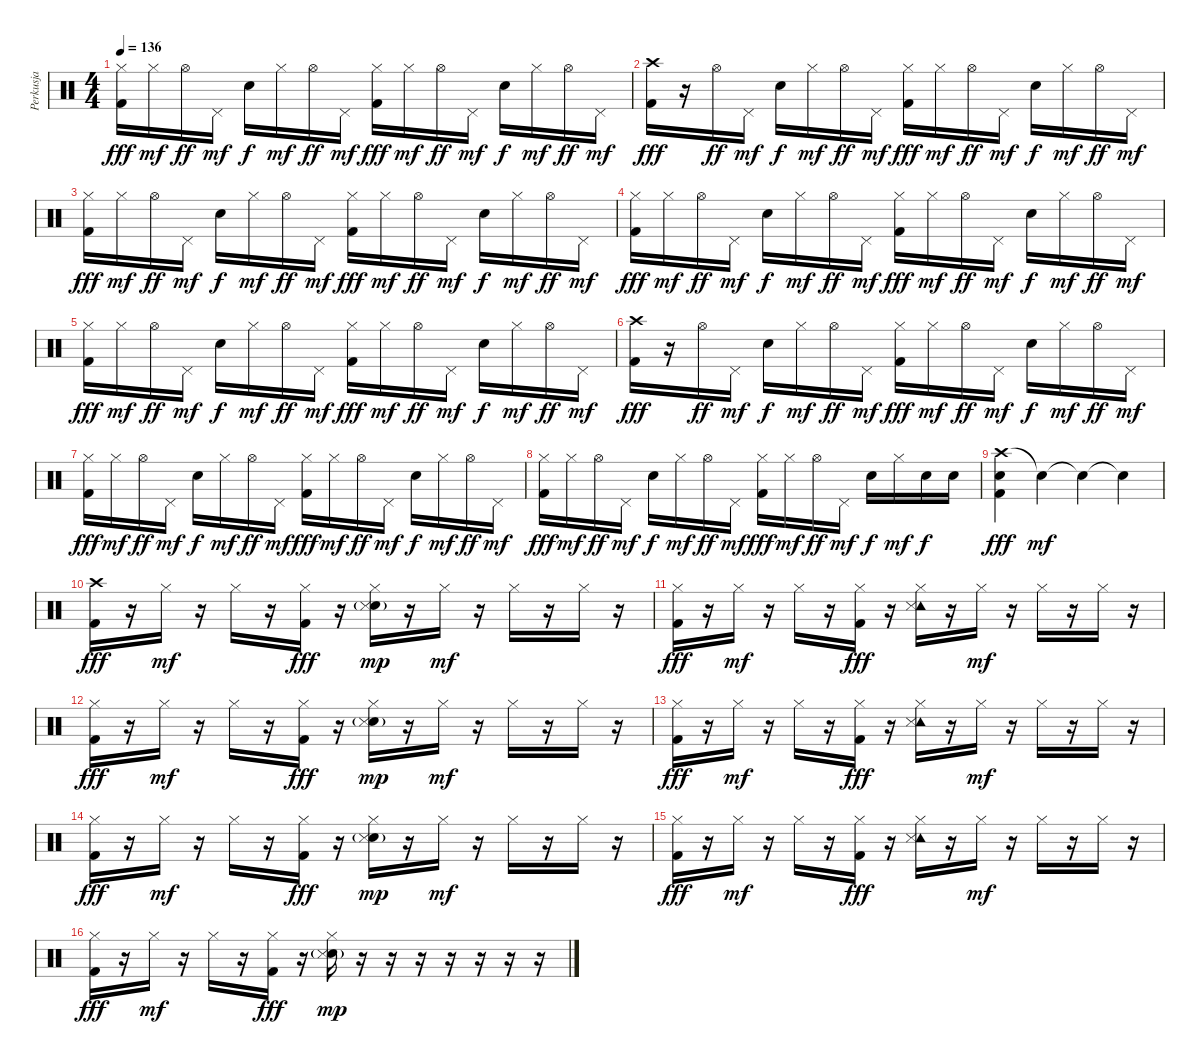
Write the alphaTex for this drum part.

\track ("Perkusja" "Perkusja") {instrument percussion}
\staff {score}
\articulation defaults
\ts (4 4)
\tempo 136
\clef neutral
\ks c
("Hi-Hat (closed)" "Kick (hit) 2").16{dy fff} "Hi-Hat (closed)".16{dy mf} "Hi-Hat (open)".16{dy ff} "Pedal Hi-Hat (hit)".16{dy mf} "Snare (hit) 2".16{dy f} "Hi-Hat (closed)".16{dy mf} "Hi-Hat (open)".16{dy ff} "Pedal Hi-Hat (hit)".16{dy mf} ("Hi-Hat (closed)" "Kick (hit) 2").16{dy fff} "Hi-Hat (closed)".16{dy mf} "Hi-Hat (open)".16{dy ff} "Pedal Hi-Hat (hit)".16{dy mf} "Snare (hit) 2".16{dy f} "Hi-Hat (closed)".16{dy mf} "Hi-Hat (open)".16{dy ff} "Pedal Hi-Hat (hit)".16{dy mf} |
("Crash high (hit)" "Kick (hit) 2").16{dy fff} r.16 "Hi-Hat (open)".16{dy ff} "Pedal Hi-Hat (hit)".16{dy mf} "Snare (hit) 2".16{dy f} "Hi-Hat (closed)".16{dy mf} "Hi-Hat (open)".16{dy ff} "Pedal Hi-Hat (hit)".16{dy mf} ("Hi-Hat (closed)" "Kick (hit) 2").16{dy fff} "Hi-Hat (closed)".16{dy mf} "Hi-Hat (open)".16{dy ff} "Pedal Hi-Hat (hit)".16{dy mf} "Snare (hit) 2".16{dy f} "Hi-Hat (closed)".16{dy mf} "Hi-Hat (open)".16{dy ff} "Pedal Hi-Hat (hit)".16{dy mf} |
("Hi-Hat (closed)" "Kick (hit) 2").16{dy fff} "Hi-Hat (closed)".16{dy mf} "Hi-Hat (open)".16{dy ff} "Pedal Hi-Hat (hit)".16{dy mf} "Snare (hit) 2".16{dy f} "Hi-Hat (closed)".16{dy mf} "Hi-Hat (open)".16{dy ff} "Pedal Hi-Hat (hit)".16{dy mf} ("Hi-Hat (closed)" "Kick (hit) 2").16{dy fff} "Hi-Hat (closed)".16{dy mf} "Hi-Hat (open)".16{dy ff} "Pedal Hi-Hat (hit)".16{dy mf} "Snare (hit) 2".16{dy f} "Hi-Hat (closed)".16{dy mf} "Hi-Hat (open)".16{dy ff} "Pedal Hi-Hat (hit)".16{dy mf} |
("Hi-Hat (closed)" "Kick (hit) 2").16{dy fff} "Hi-Hat (closed)".16{dy mf} "Hi-Hat (open)".16{dy ff} "Pedal Hi-Hat (hit)".16{dy mf} "Snare (hit) 2".16{dy f} "Hi-Hat (closed)".16{dy mf} "Hi-Hat (open)".16{dy ff} "Pedal Hi-Hat (hit)".16{dy mf} ("Hi-Hat (closed)" "Kick (hit) 2").16{dy fff} "Hi-Hat (closed)".16{dy mf} "Hi-Hat (open)".16{dy ff} "Pedal Hi-Hat (hit)".16{dy mf} "Snare (hit) 2".16{dy f} "Hi-Hat (closed)".16{dy mf} "Hi-Hat (open)".16{dy ff} "Pedal Hi-Hat (hit)".16{dy mf} |
("Hi-Hat (closed)" "Kick (hit) 2").16{dy fff} "Hi-Hat (closed)".16{dy mf} "Hi-Hat (open)".16{dy ff} "Pedal Hi-Hat (hit)".16{dy mf} "Snare (hit) 2".16{dy f} "Hi-Hat (closed)".16{dy mf} "Hi-Hat (open)".16{dy ff} "Pedal Hi-Hat (hit)".16{dy mf} ("Hi-Hat (closed)" "Kick (hit) 2").16{dy fff} "Hi-Hat (closed)".16{dy mf} "Hi-Hat (open)".16{dy ff} "Pedal Hi-Hat (hit)".16{dy mf} "Snare (hit) 2".16{dy f} "Hi-Hat (closed)".16{dy mf} "Hi-Hat (open)".16{dy ff} "Pedal Hi-Hat (hit)".16{dy mf} |
("Crash high (hit)" "Kick (hit) 2").16{dy fff} r.16 "Hi-Hat (open)".16{dy ff} "Pedal Hi-Hat (hit)".16{dy mf} "Snare (hit) 2".16{dy f} "Hi-Hat (closed)".16{dy mf} "Hi-Hat (open)".16{dy ff} "Pedal Hi-Hat (hit)".16{dy mf} ("Hi-Hat (closed)" "Kick (hit) 2").16{dy fff} "Hi-Hat (closed)".16{dy mf} "Hi-Hat (open)".16{dy ff} "Pedal Hi-Hat (hit)".16{dy mf} "Snare (hit) 2".16{dy f} "Hi-Hat (closed)".16{dy mf} "Hi-Hat (open)".16{dy ff} "Pedal Hi-Hat (hit)".16{dy mf} |
("Hi-Hat (closed)" "Kick (hit) 2").16{dy fff} "Hi-Hat (closed)".16{dy mf} "Hi-Hat (open)".16{dy ff} "Pedal Hi-Hat (hit)".16{dy mf} "Snare (hit) 2".16{dy f} "Hi-Hat (closed)".16{dy mf} "Hi-Hat (open)".16{dy ff} "Pedal Hi-Hat (hit)".16{dy mf} ("Hi-Hat (closed)" "Kick (hit) 2").16{dy fff} "Hi-Hat (closed)".16{dy mf} "Hi-Hat (open)".16{dy ff} "Pedal Hi-Hat (hit)".16{dy mf} "Snare (hit) 2".16{dy f} "Hi-Hat (closed)".16{dy mf} "Hi-Hat (open)".16{dy ff} "Pedal Hi-Hat (hit)".16{dy mf} |
("Hi-Hat (closed)" "Kick (hit) 2").16{dy fff} "Hi-Hat (closed)".16{dy mf} "Hi-Hat (open)".16{dy ff} "Pedal Hi-Hat (hit)".16{dy mf} "Snare (hit) 2".16{dy f} "Hi-Hat (closed)".16{dy mf} "Hi-Hat (open)".16{dy ff} "Pedal Hi-Hat (hit)".16{dy mf} ("Hi-Hat (closed)" "Kick (hit) 2").16{dy fff} "Hi-Hat (closed)".16{dy mf} "Hi-Hat (open)".16{dy ff} "Pedal Hi-Hat (hit)".16{dy mf} "Snare (hit) 2".16{dy f} "Hi-Hat (closed)".16{dy mf} "Snare (hit) 2".16{dy f} "Snare (hit) 2".16 |
("Crash high (hit)" "Snare (hit) 2" "Kick (hit) 2").4{dy fff} "Snare (hit)"{t}.4{dy mf} "Snare (hit)"{t}.4 "Snare (hit)"{t}.4 |
("Crash high (hit)" "Kick (hit) 2").16{dy fff} r.16 "Hi-Hat (closed)".16{dy mf} r.16 "Hi-Hat (closed)".16 r.16 ("Hi-Hat (closed)" "Kick (hit) 2").16{dy fff} r.16 ("Hi-Hat (closed)" "Snare (hit) 2"{g} "Snare (side stick) 3").16{dy mp} r.16 "Hi-Hat (closed)".16{dy mf} r.16 "Hi-Hat (closed)".16 r.16 "Hi-Hat (closed)".16 r.16 |
("Hi-Hat (closed)" "Kick (hit) 2").16{dy fff} r.16 "Hi-Hat (closed)".16{dy mf} r.16 "Hi-Hat (closed)".16 r.16 ("Hi-Hat (closed)" "Kick (hit) 2").16{dy fff} r.16 ("Hi-Hat (closed)" "Tambourine (hit)" "Snare (side stick) 3").16 r.16 "Hi-Hat (closed)".16{dy mf} r.16 "Hi-Hat (closed)".16 r.16 "Hi-Hat (closed)".16 r.16 |
("Hi-Hat (closed)" "Kick (hit) 2").16{dy fff} r.16 "Hi-Hat (closed)".16{dy mf} r.16 "Hi-Hat (closed)".16 r.16 ("Hi-Hat (closed)" "Kick (hit) 2").16{dy fff} r.16 ("Hi-Hat (closed)" "Snare (hit) 2"{g} "Snare (side stick) 3").16{dy mp} r.16 "Hi-Hat (closed)".16{dy mf} r.16 "Hi-Hat (closed)".16 r.16 "Hi-Hat (closed)".16 r.16 |
("Hi-Hat (closed)" "Kick (hit) 2").16{dy fff} r.16 "Hi-Hat (closed)".16{dy mf} r.16 "Hi-Hat (closed)".16 r.16 ("Hi-Hat (closed)" "Kick (hit) 2").16{dy fff} r.16 ("Hi-Hat (closed)" "Tambourine (hit)" "Snare (side stick) 3").16 r.16 "Hi-Hat (closed)".16{dy mf} r.16 "Hi-Hat (closed)".16 r.16 "Hi-Hat (closed)".16 r.16 |
("Hi-Hat (closed)" "Kick (hit) 2").16{dy fff} r.16 "Hi-Hat (closed)".16{dy mf} r.16 "Hi-Hat (closed)".16 r.16 ("Hi-Hat (closed)" "Kick (hit) 2").16{dy fff} r.16 ("Hi-Hat (closed)" "Snare (hit) 2"{g} "Snare (side stick) 3").16{dy mp} r.16 "Hi-Hat (closed)".16{dy mf} r.16 "Hi-Hat (closed)".16 r.16 "Hi-Hat (closed)".16 r.16 |
("Hi-Hat (closed)" "Kick (hit) 2").16{dy fff} r.16 "Hi-Hat (closed)".16{dy mf} r.16 "Hi-Hat (closed)".16 r.16 ("Hi-Hat (closed)" "Kick (hit) 2").16{dy fff} r.16 ("Hi-Hat (closed)" "Tambourine (hit)" "Snare (side stick) 3").16 r.16 "Hi-Hat (closed)".16{dy mf} r.16 "Hi-Hat (closed)".16 r.16 "Hi-Hat (closed)".16 r.16 |
("Hi-Hat (closed)" "Kick (hit) 2").16{dy fff} r.16 "Hi-Hat (closed)".16{dy mf} r.16 "Hi-Hat (closed)".16 r.16 ("Hi-Hat (closed)" "Kick (hit) 2").16{dy fff} r.16 ("Hi-Hat (closed)" "Snare (hit) 2"{g} "Snare (side stick) 3").16{dy mp} r.16 r.16 r.16 r.16 r.16 r.16 r.16
